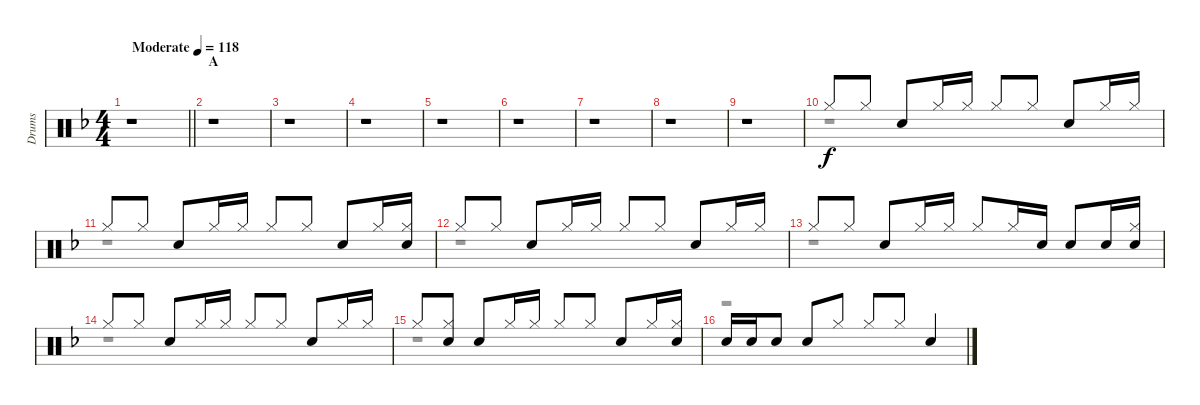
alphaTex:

\track ("Drums" "Drums") {instrument percussion}
\staff {score}
\articulation defaults
\voice
\ts (4 4)
\tempo (118 "Moderate")
\clef neutral
\barLineRight lightlight
\ks f
r.1{dy f} |
\section ("" "A")
r.1 |
r.1 |
r.1 |
r.1 |
r.1 |
r.1 |
r.1 |
r.1 |
"Hi-Hat (closed)".8 "Hi-Hat (closed)".8 "Electric Snare (hit)".8 "Hi-Hat (closed)".16 "Hi-Hat (closed)".16 "Hi-Hat (closed)".8 "Hi-Hat (closed)".8 "Electric Snare (hit)".8 "Hi-Hat (closed)".16 "Hi-Hat (closed)".16 |
"Hi-Hat (closed)".8 "Hi-Hat (closed)".8 "Electric Snare (hit)".8 "Hi-Hat (closed)".16 "Hi-Hat (closed)".16 "Hi-Hat (closed)".8 "Hi-Hat (closed)".8 "Electric Snare (hit)".8 "Hi-Hat (closed)".16 ("Hi-Hat (closed)" "Electric Snare (hit)").16 |
"Hi-Hat (closed)".8 "Hi-Hat (closed)".8 "Electric Snare (hit)".8 "Hi-Hat (closed)".16 "Hi-Hat (closed)".16 "Hi-Hat (closed)".8 "Hi-Hat (closed)".8 "Electric Snare (hit)".8 "Hi-Hat (closed)".16 "Hi-Hat (closed)".16 |
"Hi-Hat (closed)".8 "Hi-Hat (closed)".8 "Electric Snare (hit)".8 "Hi-Hat (closed)".16 "Hi-Hat (closed)".16 "Hi-Hat (closed)".8 "Hi-Hat (closed)".16 "Electric Snare (hit)".16 "Electric Snare (hit)".8 "Electric Snare (hit)".16 ("Hi-Hat (closed)" "Electric Snare (hit)").16 |
"Hi-Hat (closed)".8 "Hi-Hat (closed)".8 "Electric Snare (hit)".8 "Hi-Hat (closed)".16 "Hi-Hat (closed)".16 "Hi-Hat (closed)".8 "Hi-Hat (closed)".8 "Electric Snare (hit)".8 "Hi-Hat (closed)".16 "Hi-Hat (closed)".16 |
"Hi-Hat (closed)".8 ("Hi-Hat (closed)" "Electric Snare (hit)").8 "Electric Snare (hit)".8 "Hi-Hat (closed)".16 "Hi-Hat (closed)".16 "Hi-Hat (closed)".8 "Hi-Hat (closed)".8 "Electric Snare (hit)".8 "Hi-Hat (closed)".16 ("Hi-Hat (closed)" "Electric Snare (hit)").16 |
"Electric Snare (hit)".16 "Electric Snare (hit)".16 "Electric Snare (hit)".8 "Electric Snare (hit)".8 "Hi-Hat (closed)".8 "Hi-Hat (closed)".8 "Hi-Hat (closed)".8 "Electric Snare (hit)".4
\voice
\clef neutral
\ottava regular
\simile none
\barLineRight lightlight
\ks f
r.1{dy fff} |
r.1 |
r.1 |
r.1 |
r.1 |
r.1 |
r.1 |
r.1 |
r.1 |
r.1 |
r.1 |
r.1 |
r.1 |
r.1 |
r.1 |
r.1
